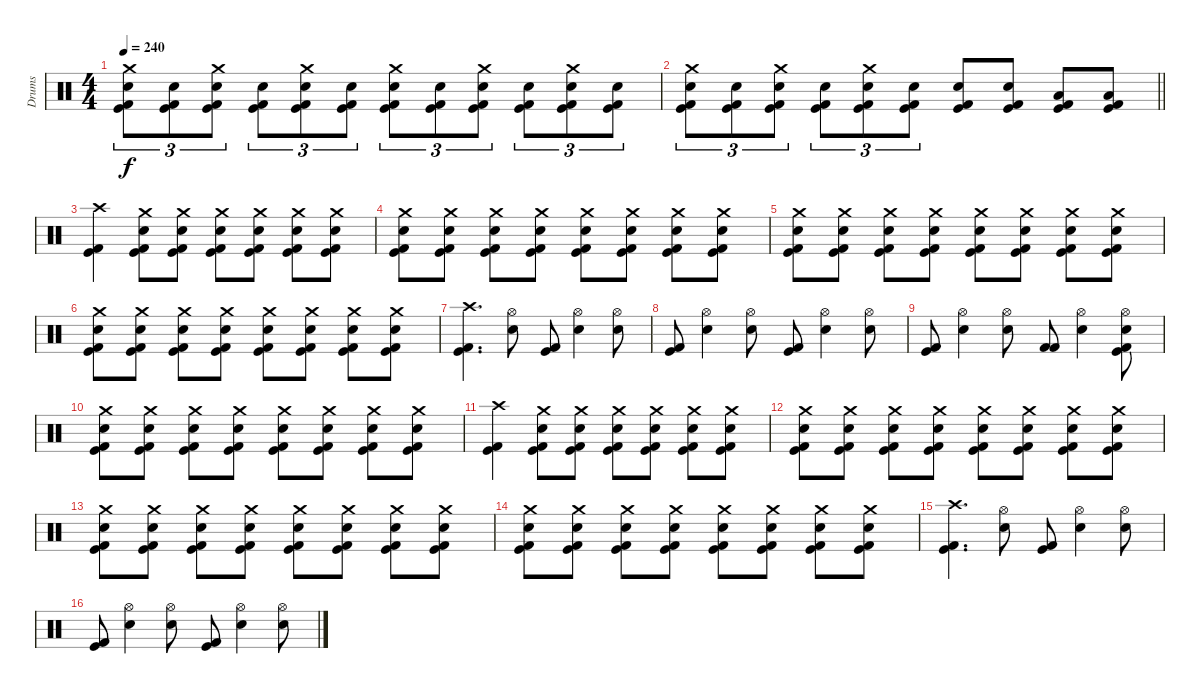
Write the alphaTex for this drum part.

\track ("Drums" "Drums") {instrument percussion}
\staff {score}
\articulation defaults
\ts (4 4)
\tempo 240
\clef neutral
\ks c
("Crash medium (hit)" "Electric Snare (hit)" "Kick (hit)" "Kick (hit) 2").8{tu (3 2) dy f} ("Electric Snare (hit)" "Kick (hit)" "Kick (hit) 2").8{tu (3 2)} ("Crash medium (hit)" "Electric Snare (hit)" "Kick (hit)" "Kick (hit) 2").8{tu (3 2)} ("Electric Snare (hit)" "Kick (hit)" "Kick (hit) 2").8{tu (3 2)} ("Crash medium (hit)" "Electric Snare (hit)" "Kick (hit)" "Kick (hit) 2").8{tu (3 2)} ("Electric Snare (hit)" "Kick (hit)" "Kick (hit) 2").8{tu (3 2)} ("Crash medium (hit)" "Electric Snare (hit)" "Kick (hit)" "Kick (hit) 2").8{tu (3 2)} ("Electric Snare (hit)" "Kick (hit)" "Kick (hit) 2").8{tu (3 2)} ("Crash medium (hit)" "Electric Snare (hit)" "Kick (hit)" "Kick (hit) 2").8{tu (3 2)} ("Electric Snare (hit)" "Kick (hit)" "Kick (hit) 2").8{tu (3 2)} ("Crash medium (hit)" "Electric Snare (hit)" "Kick (hit)" "Kick (hit) 2").8{tu (3 2)} ("Electric Snare (hit)" "Kick (hit)" "Kick (hit) 2").8{tu (3 2)} |
\barLineRight lightlight
("Crash medium (hit)" "Electric Snare (hit)" "Kick (hit)" "Kick (hit) 2").8{tu (3 2)} ("Electric Snare (hit)" "Kick (hit)" "Kick (hit) 2").8{tu (3 2)} ("Crash medium (hit)" "Electric Snare (hit)" "Kick (hit)" "Kick (hit) 2").8{tu (3 2)} ("Electric Snare (hit)" "Kick (hit)" "Kick (hit) 2").8{tu (3 2)} ("Crash medium (hit)" "Electric Snare (hit)" "Kick (hit)" "Kick (hit) 2").8{tu (3 2)} ("Electric Snare (hit)" "Kick (hit)" "Kick (hit) 2").8{tu (3 2)} ("Electric Snare (hit)" "Kick (hit)" "Kick (hit) 2").8 ("Electric Snare (hit)" "Kick (hit)" "Kick (hit) 2").8 ("Low Tom (hit)" "Kick (hit)" "Kick (hit) 2").8 ("Low Tom (hit)" "Kick (hit)" "Kick (hit) 2").8 |
\section ("" "")
("Crash high (hit)" "Kick (hit)" "Kick (hit) 2").4 ("Crash medium (hit)" "Electric Snare (hit)" "Kick (hit)" "Kick (hit) 2").8 ("Crash medium (hit)" "Electric Snare (hit)" "Kick (hit)" "Kick (hit) 2").8 ("Crash medium (hit)" "Electric Snare (hit)" "Kick (hit)" "Kick (hit) 2").8 ("Crash medium (hit)" "Electric Snare (hit)" "Kick (hit)" "Kick (hit) 2").8 ("Crash medium (hit)" "Electric Snare (hit)" "Kick (hit)" "Kick (hit) 2").8 ("Crash medium (hit)" "Electric Snare (hit)" "Kick (hit)" "Kick (hit) 2").8 |
("Crash medium (hit)" "Electric Snare (hit)" "Kick (hit)" "Kick (hit) 2").8 ("Crash medium (hit)" "Electric Snare (hit)" "Kick (hit)" "Kick (hit) 2").8 ("Crash medium (hit)" "Electric Snare (hit)" "Kick (hit)" "Kick (hit) 2").8 ("Crash medium (hit)" "Electric Snare (hit)" "Kick (hit)" "Kick (hit) 2").8 ("Crash medium (hit)" "Electric Snare (hit)" "Kick (hit)" "Kick (hit) 2").8 ("Crash medium (hit)" "Electric Snare (hit)" "Kick (hit)" "Kick (hit) 2").8 ("Crash medium (hit)" "Electric Snare (hit)" "Kick (hit)" "Kick (hit) 2").8 ("Crash medium (hit)" "Electric Snare (hit)" "Kick (hit)" "Kick (hit) 2").8 |
("Crash medium (hit)" "Electric Snare (hit)" "Kick (hit)" "Kick (hit) 2").8 ("Crash medium (hit)" "Electric Snare (hit)" "Kick (hit)" "Kick (hit) 2").8 ("Crash medium (hit)" "Electric Snare (hit)" "Kick (hit)" "Kick (hit) 2").8 ("Crash medium (hit)" "Electric Snare (hit)" "Kick (hit)" "Kick (hit) 2").8 ("Crash medium (hit)" "Electric Snare (hit)" "Kick (hit)" "Kick (hit) 2").8 ("Crash medium (hit)" "Electric Snare (hit)" "Kick (hit)" "Kick (hit) 2").8 ("Crash medium (hit)" "Electric Snare (hit)" "Kick (hit)" "Kick (hit) 2").8 ("Crash medium (hit)" "Electric Snare (hit)" "Kick (hit)" "Kick (hit) 2").8 |
("Crash medium (hit)" "Electric Snare (hit)" "Kick (hit)" "Kick (hit) 2").8 ("Crash medium (hit)" "Electric Snare (hit)" "Kick (hit)" "Kick (hit) 2").8 ("Crash medium (hit)" "Electric Snare (hit)" "Kick (hit)" "Kick (hit) 2").8 ("Crash medium (hit)" "Electric Snare (hit)" "Kick (hit)" "Kick (hit) 2").8 ("Crash medium (hit)" "Electric Snare (hit)" "Kick (hit)" "Kick (hit) 2").8 ("Crash medium (hit)" "Electric Snare (hit)" "Kick (hit)" "Kick (hit) 2").8 ("Crash medium (hit)" "Electric Snare (hit)" "Kick (hit)" "Kick (hit) 2").8 ("Crash medium (hit)" "Electric Snare (hit)" "Kick (hit)" "Kick (hit) 2").8 |
("Crash high (hit)" "Kick (hit)" "Kick (hit) 2").4{d} ("Hi-Hat (open)" "Electric Snare (hit)").8 ("Kick (hit)" "Kick (hit) 2").8 ("Hi-Hat (open)" "Electric Snare (hit)").4 ("Hi-Hat (open)" "Electric Snare (hit)").8 |
("Kick (hit)" "Kick (hit) 2").8 ("Hi-Hat (open)" "Electric Snare (hit)").4 ("Hi-Hat (open)" "Electric Snare (hit)").8 ("Kick (hit)" "Kick (hit) 2").8 ("Hi-Hat (open)" "Electric Snare (hit)").4 ("Hi-Hat (open)" "Electric Snare (hit)").8 |
("Kick (hit)" "Kick (hit) 2").8 ("Hi-Hat (open)" "Electric Snare (hit)").4 ("Hi-Hat (open)" "Electric Snare (hit)").8 ("Kick (hit) 2" "Kick (hit) 2").8 ("Hi-Hat (open)" "Electric Snare (hit)").4 ("Hi-Hat (open)" "Electric Snare (hit)" "Kick (hit)" "Kick (hit) 2").8 |
("Crash medium (hit)" "Electric Snare (hit)" "Kick (hit)" "Kick (hit) 2").8 ("Crash medium (hit)" "Electric Snare (hit)" "Kick (hit)" "Kick (hit) 2").8 ("Crash medium (hit)" "Electric Snare (hit)" "Kick (hit)" "Kick (hit) 2").8 ("Crash medium (hit)" "Electric Snare (hit)" "Kick (hit)" "Kick (hit) 2").8 ("Crash medium (hit)" "Electric Snare (hit)" "Kick (hit)" "Kick (hit) 2").8 ("Crash medium (hit)" "Electric Snare (hit)" "Kick (hit)" "Kick (hit) 2").8 ("Crash medium (hit)" "Electric Snare (hit)" "Kick (hit)" "Kick (hit) 2").8 ("Crash medium (hit)" "Electric Snare (hit)" "Kick (hit)" "Kick (hit) 2").8 |
("Crash high (hit)" "Kick (hit)" "Kick (hit) 2").4 ("Crash medium (hit)" "Electric Snare (hit)" "Kick (hit)" "Kick (hit) 2").8 ("Crash medium (hit)" "Electric Snare (hit)" "Kick (hit)" "Kick (hit) 2").8 ("Crash medium (hit)" "Electric Snare (hit)" "Kick (hit)" "Kick (hit) 2").8 ("Crash medium (hit)" "Electric Snare (hit)" "Kick (hit)" "Kick (hit) 2").8 ("Crash medium (hit)" "Electric Snare (hit)" "Kick (hit)" "Kick (hit) 2").8 ("Crash medium (hit)" "Electric Snare (hit)" "Kick (hit)" "Kick (hit) 2").8 |
("Crash medium (hit)" "Electric Snare (hit)" "Kick (hit)" "Kick (hit) 2").8 ("Crash medium (hit)" "Electric Snare (hit)" "Kick (hit)" "Kick (hit) 2").8 ("Crash medium (hit)" "Electric Snare (hit)" "Kick (hit)" "Kick (hit) 2").8 ("Crash medium (hit)" "Electric Snare (hit)" "Kick (hit)" "Kick (hit) 2").8 ("Crash medium (hit)" "Electric Snare (hit)" "Kick (hit)" "Kick (hit) 2").8 ("Crash medium (hit)" "Electric Snare (hit)" "Kick (hit)" "Kick (hit) 2").8 ("Crash medium (hit)" "Electric Snare (hit)" "Kick (hit)" "Kick (hit) 2").8 ("Crash medium (hit)" "Electric Snare (hit)" "Kick (hit)" "Kick (hit) 2").8 |
("Crash medium (hit)" "Electric Snare (hit)" "Kick (hit)" "Kick (hit) 2").8 ("Crash medium (hit)" "Electric Snare (hit)" "Kick (hit)" "Kick (hit) 2").8 ("Crash medium (hit)" "Electric Snare (hit)" "Kick (hit)" "Kick (hit) 2").8 ("Crash medium (hit)" "Electric Snare (hit)" "Kick (hit)" "Kick (hit) 2").8 ("Crash medium (hit)" "Electric Snare (hit)" "Kick (hit)" "Kick (hit) 2").8 ("Crash medium (hit)" "Electric Snare (hit)" "Kick (hit)" "Kick (hit) 2").8 ("Crash medium (hit)" "Electric Snare (hit)" "Kick (hit)" "Kick (hit) 2").8 ("Crash medium (hit)" "Electric Snare (hit)" "Kick (hit)" "Kick (hit) 2").8 |
("Crash medium (hit)" "Electric Snare (hit)" "Kick (hit)" "Kick (hit) 2").8 ("Crash medium (hit)" "Electric Snare (hit)" "Kick (hit)" "Kick (hit) 2").8 ("Crash medium (hit)" "Electric Snare (hit)" "Kick (hit)" "Kick (hit) 2").8 ("Crash medium (hit)" "Electric Snare (hit)" "Kick (hit)" "Kick (hit) 2").8 ("Crash medium (hit)" "Electric Snare (hit)" "Kick (hit)" "Kick (hit) 2").8 ("Crash medium (hit)" "Electric Snare (hit)" "Kick (hit)" "Kick (hit) 2").8 ("Crash medium (hit)" "Electric Snare (hit)" "Kick (hit)" "Kick (hit) 2").8 ("Crash medium (hit)" "Electric Snare (hit)" "Kick (hit)" "Kick (hit) 2").8 |
("Crash high (hit)" "Kick (hit)" "Kick (hit) 2").4{d} ("Hi-Hat (open)" "Electric Snare (hit)").8 ("Kick (hit)" "Kick (hit) 2").8 ("Hi-Hat (open)" "Electric Snare (hit)").4 ("Hi-Hat (open)" "Electric Snare (hit)").8 |
("Kick (hit)" "Kick (hit) 2").8 ("Hi-Hat (open)" "Electric Snare (hit)").4 ("Hi-Hat (open)" "Electric Snare (hit)").8 ("Kick (hit)" "Kick (hit) 2").8 ("Hi-Hat (open)" "Electric Snare (hit)").4 ("Hi-Hat (open)" "Electric Snare (hit)").8
